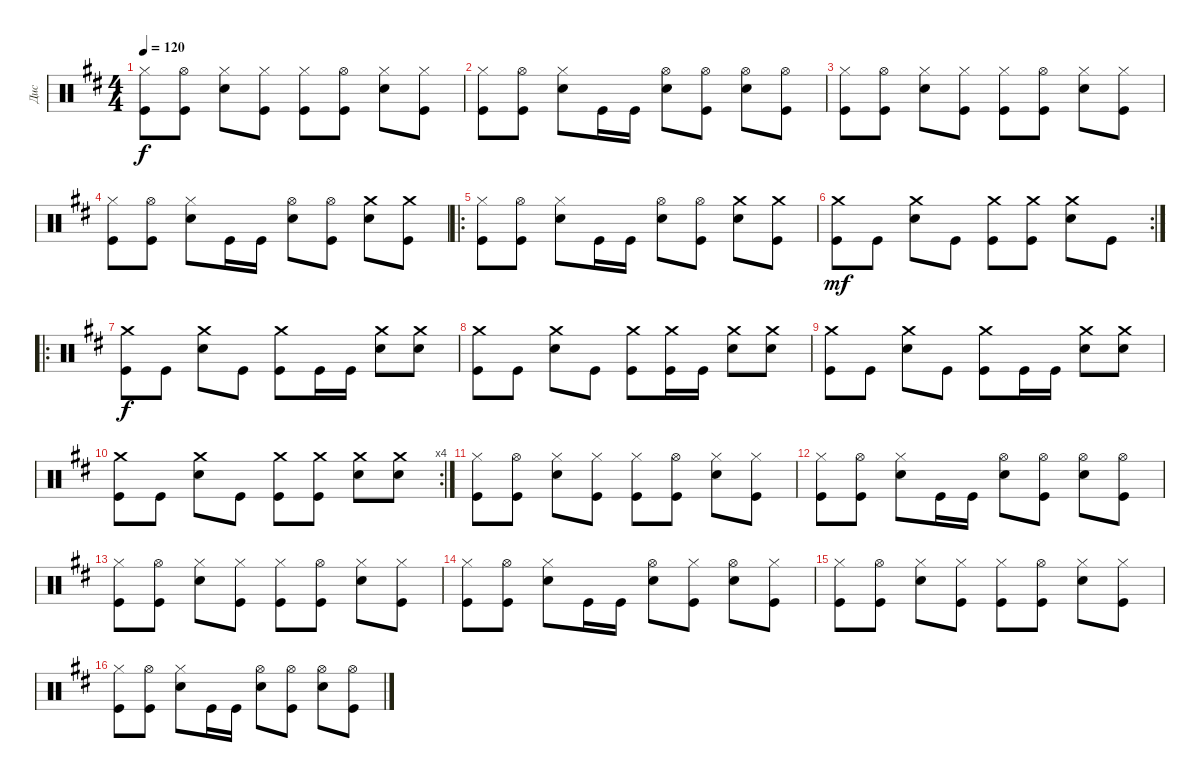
\track ("Дис" "Дис") {instrument percussion}
\staff {score}
\articulation defaults
\ts (4 4)
\tempo 120
\clef neutral
\ks bminor
("Hi-Hat (closed)" "Kick (hit)").8{dy f} ("Hi-Hat (open)" "Kick (hit)").8 ("Hi-Hat (closed)" "Electric Snare (hit)").8 ("Hi-Hat (closed)" "Kick (hit)").8 ("Hi-Hat (closed)" "Kick (hit)").8 ("Hi-Hat (open)" "Kick (hit)").8 ("Hi-Hat (closed)" "Electric Snare (hit)").8 ("Hi-Hat (closed)" "Kick (hit)").8 |
("Hi-Hat (closed)" "Kick (hit)").8 ("Hi-Hat (open)" "Kick (hit)").8 ("Hi-Hat (closed)" "Electric Snare (hit)").8 "Kick (hit)".16 "Kick (hit)".16 ("Hi-Hat (open)" "Electric Snare (hit)").8 ("Hi-Hat (open)" "Kick (hit)").8 ("Hi-Hat (open)" "Electric Snare (hit)").8 ("Hi-Hat (open)" "Kick (hit)").8 |
("Hi-Hat (closed)" "Kick (hit)").8 ("Hi-Hat (open)" "Kick (hit)").8 ("Hi-Hat (closed)" "Electric Snare (hit)").8 ("Hi-Hat (closed)" "Kick (hit)").8 ("Hi-Hat (closed)" "Kick (hit)").8 ("Hi-Hat (open)" "Kick (hit)").8 ("Hi-Hat (closed)" "Electric Snare (hit)").8 ("Hi-Hat (closed)" "Kick (hit)").8 |
("Hi-Hat (closed)" "Kick (hit)").8 ("Hi-Hat (open)" "Kick (hit)").8 ("Hi-Hat (closed)" "Electric Snare (hit)").8 "Kick (hit)".16 "Kick (hit)".16 ("Hi-Hat (open)" "Electric Snare (hit)").8 ("Hi-Hat (open)" "Kick (hit)").8 ("Crash medium (hit)" "Electric Snare (hit)").8 ("Crash medium (hit)" "Kick (hit)").8 |
\ro
("Hi-Hat (closed)" "Kick (hit)").8 ("Hi-Hat (open)" "Kick (hit)").8 ("Hi-Hat (closed)" "Electric Snare (hit)").8 "Kick (hit)".16 "Kick (hit)".16 ("Hi-Hat (open)" "Electric Snare (hit)").8 ("Hi-Hat (open)" "Kick (hit)").8 ("Crash medium (hit)" "Electric Snare (hit)").8 ("Crash medium (hit)" "Kick (hit)").8 |
\rc 2
("Crash medium (hit)" "Kick (hit)").8{dy mf} "Kick (hit)".8 ("Crash medium (hit)" "Electric Snare (hit)").8 "Kick (hit)".8 ("Crash medium (hit)" "Kick (hit)").8 ("Crash medium (hit)" "Kick (hit)").8 ("Crash medium (hit)" "Electric Snare (hit)").8 "Kick (hit)".8 |
\ro
("Crash medium (hit)" "Kick (hit)").8{dy f} "Kick (hit)".8 ("Crash medium (hit)" "Electric Snare (hit)").8 "Kick (hit)".8 ("Crash medium (hit)" "Kick (hit)").8 "Kick (hit)".16 "Kick (hit)".16 ("Crash medium (hit)" "Electric Snare (hit)").8 ("Crash medium (hit)" "Electric Snare (hit)").8 |
("Crash medium (hit)" "Kick (hit)").8 "Kick (hit)".8 ("Crash medium (hit)" "Electric Snare (hit)").8 "Kick (hit)".8 ("Crash medium (hit)" "Kick (hit)").8 ("Crash medium (hit)" "Kick (hit)").16 "Kick (hit)".16 ("Crash medium (hit)" "Electric Snare (hit)").8 ("Crash medium (hit)" "Electric Snare (hit)").8 |
("Crash medium (hit)" "Kick (hit)").8 "Kick (hit)".8 ("Crash medium (hit)" "Electric Snare (hit)").8 "Kick (hit)".8 ("Crash medium (hit)" "Kick (hit)").8 "Kick (hit)".16 "Kick (hit)".16 ("Crash medium (hit)" "Electric Snare (hit)").8 ("Crash medium (hit)" "Electric Snare (hit)").8 |
\rc 4
("Crash medium (hit)" "Kick (hit)").8 "Kick (hit)".8 ("Crash medium (hit)" "Electric Snare (hit)").8 "Kick (hit)".8 ("Crash medium (hit)" "Kick (hit)").8 ("Crash medium (hit)" "Kick (hit)").8 ("Crash medium (hit)" "Electric Snare (hit)").8 ("Crash medium (hit)" "Electric Snare (hit)").8 |
("Hi-Hat (closed)" "Kick (hit)").8 ("Hi-Hat (open)" "Kick (hit)").8 ("Hi-Hat (closed)" "Electric Snare (hit)").8 ("Hi-Hat (closed)" "Kick (hit)").8 ("Hi-Hat (closed)" "Kick (hit)").8 ("Hi-Hat (open)" "Kick (hit)").8 ("Hi-Hat (closed)" "Electric Snare (hit)").8 ("Hi-Hat (closed)" "Kick (hit)").8 |
("Hi-Hat (closed)" "Kick (hit)").8 ("Hi-Hat (open)" "Kick (hit)").8 ("Hi-Hat (closed)" "Electric Snare (hit)").8 "Kick (hit)".16 "Kick (hit)".16 ("Hi-Hat (open)" "Electric Snare (hit)").8 ("Hi-Hat (open)" "Kick (hit)").8 ("Hi-Hat (open)" "Electric Snare (hit)").8 ("Hi-Hat (open)" "Kick (hit)").8 |
("Hi-Hat (closed)" "Kick (hit)").8 ("Hi-Hat (open)" "Kick (hit)").8 ("Hi-Hat (closed)" "Electric Snare (hit)").8 ("Hi-Hat (closed)" "Kick (hit)").8 ("Hi-Hat (closed)" "Kick (hit)").8 ("Hi-Hat (open)" "Kick (hit)").8 ("Hi-Hat (closed)" "Electric Snare (hit)").8 ("Hi-Hat (closed)" "Kick (hit)").8 |
("Hi-Hat (closed)" "Kick (hit)").8 ("Hi-Hat (open)" "Kick (hit)").8 ("Hi-Hat (closed)" "Electric Snare (hit)").8 "Kick (hit)".16 "Kick (hit)".16 ("Hi-Hat (open)" "Electric Snare (hit)").8 ("Hi-Hat (closed)" "Kick (hit)").8 ("Hi-Hat (open)" "Electric Snare (hit)").8 ("Hi-Hat (closed)" "Kick (hit)").8 |
("Hi-Hat (closed)" "Kick (hit)").8 ("Hi-Hat (open)" "Kick (hit)").8 ("Hi-Hat (closed)" "Electric Snare (hit)").8 ("Hi-Hat (closed)" "Kick (hit)").8 ("Hi-Hat (closed)" "Kick (hit)").8 ("Hi-Hat (open)" "Kick (hit)").8 ("Hi-Hat (closed)" "Electric Snare (hit)").8 ("Hi-Hat (closed)" "Kick (hit)").8 |
("Hi-Hat (closed)" "Kick (hit)").8 ("Hi-Hat (open)" "Kick (hit)").8 ("Hi-Hat (closed)" "Electric Snare (hit)").8 "Kick (hit)".16 "Kick (hit)".16 ("Hi-Hat (open)" "Electric Snare (hit)").8 ("Hi-Hat (open)" "Kick (hit)").8 ("Hi-Hat (open)" "Electric Snare (hit)").8 ("Hi-Hat (open)" "Kick (hit)").8
